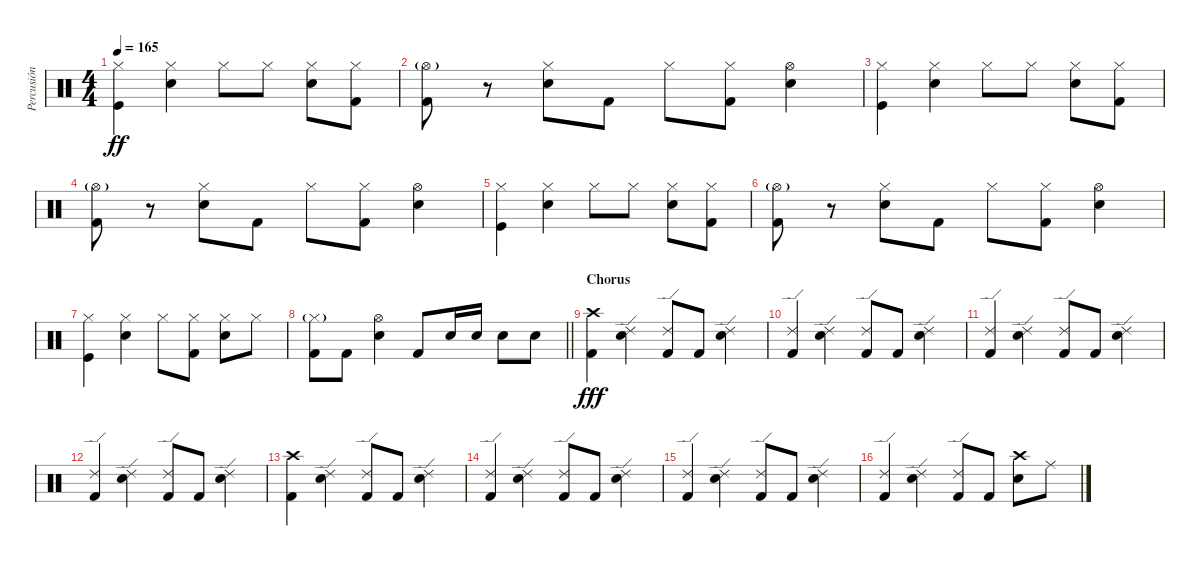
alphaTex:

\track ("Percusión" "Percusión") {instrument percussion}
\staff {score}
\articulation defaults
\ts (4 4)
\tempo 165
\clef neutral
\ks c
("Kick (hit)" "Hi-Hat (closed)").4{dy ff} ("Electric Snare (hit)" "Hi-Hat (closed)").4 "Hi-Hat (closed)".8 "Hi-Hat (closed)".8 ("Electric Snare (hit)" "Hi-Hat (closed)").8 ("Kick (hit) 2" "Hi-Hat (closed)").8 |
("Kick (hit) 2" "Hi-Hat (open)"{g}).8 r.8 ("Electric Snare (hit)" "Hi-Hat (closed)").8 "Kick (hit) 2".8 "Hi-Hat (closed)".8 ("Kick (hit) 2" "Hi-Hat (closed)").8 ("Electric Snare (hit)" "Hi-Hat (open)").4 |
("Kick (hit)" "Hi-Hat (closed)").4 ("Electric Snare (hit)" "Hi-Hat (closed)").4 "Hi-Hat (closed)".8 "Hi-Hat (closed)".8 ("Electric Snare (hit)" "Hi-Hat (closed)").8 ("Kick (hit) 2" "Hi-Hat (closed)").8 |
("Kick (hit) 2" "Hi-Hat (open)"{g}).8 r.8 ("Electric Snare (hit)" "Hi-Hat (closed)").8 "Kick (hit) 2".8 "Hi-Hat (closed)".8 ("Kick (hit) 2" "Hi-Hat (closed)").8 ("Electric Snare (hit)" "Hi-Hat (open)").4 |
("Kick (hit)" "Hi-Hat (closed)").4 ("Electric Snare (hit)" "Hi-Hat (closed)").4 "Hi-Hat (closed)".8 "Hi-Hat (closed)".8 ("Electric Snare (hit)" "Hi-Hat (closed)").8 ("Kick (hit) 2" "Hi-Hat (closed)").8 |
("Kick (hit) 2" "Hi-Hat (open)"{g}).8 r.8 ("Electric Snare (hit)" "Hi-Hat (closed)").8 "Kick (hit) 2".8 "Hi-Hat (closed)".8 ("Kick (hit) 2" "Hi-Hat (closed)").8 ("Electric Snare (hit)" "Hi-Hat (open)").4 |
("Kick (hit)" "Hi-Hat (closed)").4 ("Electric Snare (hit)" "Hi-Hat (closed)").4 "Hi-Hat (closed)".8 ("Kick (hit) 2" "Hi-Hat (closed)").8 ("Electric Snare (hit)" "Hi-Hat (closed)").8 "Hi-Hat (closed)".8 |
\barLineRight lightlight
("Kick (hit) 2" "Hi-Hat (closed)"{g}).8 "Kick (hit) 2".8 ("Electric Snare (hit)" "Hi-Hat (open)").4 "Kick (hit) 2".8 "Electric Snare (hit)".16 "Electric Snare (hit)".16 "Electric Snare (hit)".8 "Electric Snare (hit)".8 |
\section ("" "Chorus")
("Kick (hit) 2" "Crash high (hit)").4{dy fff} ("Electric Snare (hit)" "Ride (edge) 2").4 ("Kick (hit) 2" "Ride (edge) 2").8 "Kick (hit) 2".8 ("Electric Snare (hit)" "Ride (edge) 2").4 |
("Kick (hit) 2" "Ride (edge) 2").4 ("Electric Snare (hit)" "Ride (edge) 2").4 ("Kick (hit) 2" "Ride (edge) 2").8 "Kick (hit) 2".8 ("Electric Snare (hit)" "Ride (edge) 2").4 |
("Kick (hit) 2" "Ride (edge) 2").4 ("Electric Snare (hit)" "Ride (edge) 2").4 ("Kick (hit) 2" "Ride (edge) 2").8 "Kick (hit) 2".8 ("Electric Snare (hit)" "Ride (edge) 2").4 |
("Kick (hit) 2" "Ride (edge) 2").4 ("Electric Snare (hit)" "Ride (edge) 2").4 ("Kick (hit) 2" "Ride (edge) 2").8 "Kick (hit) 2".8 ("Electric Snare (hit)" "Ride (edge) 2").4 |
("Kick (hit) 2" "Crash high (hit)").4 ("Electric Snare (hit)" "Ride (edge) 2").4 ("Kick (hit) 2" "Ride (edge) 2").8 "Kick (hit) 2".8 ("Electric Snare (hit)" "Ride (edge) 2").4 |
("Kick (hit) 2" "Ride (edge) 2").4 ("Electric Snare (hit)" "Ride (edge) 2").4 ("Kick (hit) 2" "Ride (edge) 2").8 "Kick (hit) 2".8 ("Electric Snare (hit)" "Ride (edge) 2").4 |
("Kick (hit) 2" "Ride (edge) 2").4 ("Electric Snare (hit)" "Ride (edge) 2").4 ("Kick (hit) 2" "Ride (edge) 2").8 "Kick (hit) 2".8 ("Electric Snare (hit)" "Ride (edge) 2").4 |
("Kick (hit) 2" "Ride (edge) 2").4 ("Electric Snare (hit)" "Ride (edge) 2").4 ("Kick (hit) 2" "Ride (edge) 2").8 "Kick (hit) 2".8 ("Electric Snare (hit)" "Crash high (hit)").8 "Ride (middle)".8
